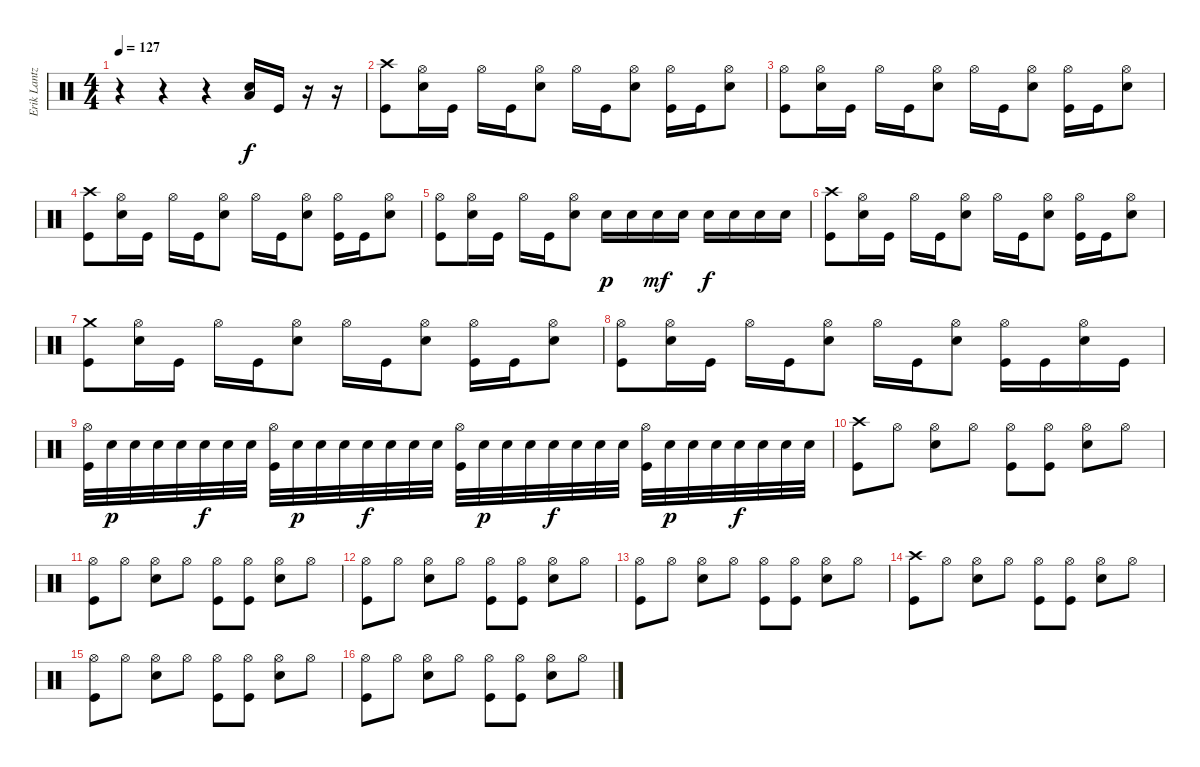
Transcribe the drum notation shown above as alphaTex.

\track ("Erik Lantz" "Erik Lantz") {instrument percussion}
\staff {score}
\articulation defaults
\ts (4 4)
\tempo 127
\clef neutral
\ks c
r.4{dy f} r.4 r.4 ("Low Floor Tom (hit)" "Electric Snare (hit)").16 "Kick (hit)".16 r.16 r.16 |
("Crash high (hit)" "Kick (hit)").8 ("Hi-Hat (open)" "Electric Snare (hit)").16 "Kick (hit)".16 "Hi-Hat (open)".16 "Kick (hit)".16 ("Hi-Hat (open)" "Electric Snare (hit)").8 "Hi-Hat (open)".16 "Kick (hit)".16 ("Hi-Hat (open)" "Electric Snare (hit)").8 ("Hi-Hat (open)" "Kick (hit)").16 "Kick (hit)".16 ("Hi-Hat (open)" "Electric Snare (hit)").8 |
("Hi-Hat (open)" "Kick (hit)").8 ("Hi-Hat (open)" "Electric Snare (hit)").16 "Kick (hit)".16 "Hi-Hat (open)".16 "Kick (hit)".16 ("Hi-Hat (open)" "Electric Snare (hit)").8 "Hi-Hat (open)".16 "Kick (hit)".16 ("Hi-Hat (open)" "Electric Snare (hit)").8 ("Hi-Hat (open)" "Kick (hit)").16 "Kick (hit)".16 ("Hi-Hat (open)" "Electric Snare (hit)").8 |
("Crash high (hit)" "Kick (hit)").8 ("Hi-Hat (open)" "Electric Snare (hit)").16 "Kick (hit)".16 "Hi-Hat (open)".16 "Kick (hit)".16 ("Hi-Hat (open)" "Electric Snare (hit)").8 "Hi-Hat (open)".16 "Kick (hit)".16 ("Hi-Hat (open)" "Electric Snare (hit)").8 ("Hi-Hat (open)" "Kick (hit)").16 "Kick (hit)".16 ("Hi-Hat (open)" "Electric Snare (hit)").8 |
("Hi-Hat (open)" "Kick (hit)").8 ("Hi-Hat (open)" "Electric Snare (hit)").16 "Kick (hit)".16 "Hi-Hat (open)".16 "Kick (hit)".16 ("Hi-Hat (open)" "Electric Snare (hit)").8 "Electric Snare (hit)".16{dy p} "Electric Snare (hit)".16 "Electric Snare (hit)".16{dy mf} "Electric Snare (hit)".16 "Electric Snare (hit)".16{dy f} "Electric Snare (hit)".16 "Electric Snare (hit)".16 "Electric Snare (hit)".16 |
("Crash high (hit)" "Kick (hit)").8 ("Hi-Hat (open)" "Electric Snare (hit)").16 "Kick (hit)".16 "Hi-Hat (open)".16 "Kick (hit)".16 ("Hi-Hat (open)" "Electric Snare (hit)").8 "Hi-Hat (open)".16 "Kick (hit)".16 ("Hi-Hat (open)" "Electric Snare (hit)").8 ("Hi-Hat (open)" "Kick (hit)").16 "Kick (hit)".16 ("Hi-Hat (open)" "Electric Snare (hit)").8 |
("Crash medium (hit)" "Kick (hit)").8 ("Hi-Hat (open)" "Electric Snare (hit)").16 "Kick (hit)".16 "Hi-Hat (open)".16 "Kick (hit)".16 ("Hi-Hat (open)" "Electric Snare (hit)").8 "Hi-Hat (open)".16 "Kick (hit)".16 ("Hi-Hat (open)" "Electric Snare (hit)").8 ("Hi-Hat (open)" "Kick (hit)").16 "Kick (hit)".16 ("Hi-Hat (open)" "Electric Snare (hit)").8 |
("Hi-Hat (open)" "Kick (hit)").8 ("Hi-Hat (open)" "Electric Snare (hit)").16 "Kick (hit)".16 "Hi-Hat (open)".16 "Kick (hit)".16 ("Hi-Hat (open)" "Electric Snare (hit)").8 "Hi-Hat (open)".16 "Kick (hit)".16 ("Hi-Hat (open)" "Electric Snare (hit)").8 ("Hi-Hat (open)" "Kick (hit)").16 "Kick (hit)".16 ("Hi-Hat (open)" "Electric Snare (hit)").16 "Kick (hit)".16 |
("Hi-Hat (open)" "Kick (hit)").32 "Electric Snare (hit)".32{dy p} "Electric Snare (hit)".32 "Electric Snare (hit)".32 "Electric Snare (hit)".32 "Electric Snare (hit)".32{dy f} "Electric Snare (hit)".32 "Electric Snare (hit)".32 ("Hi-Hat (open)" "Kick (hit)").32 "Electric Snare (hit)".32{dy p} "Electric Snare (hit)".32 "Electric Snare (hit)".32 "Electric Snare (hit)".32{dy f} "Electric Snare (hit)".32 "Electric Snare (hit)".32 "Electric Snare (hit)".32 ("Hi-Hat (open)" "Kick (hit)").32 "Electric Snare (hit)".32{dy p} "Electric Snare (hit)".32 "Electric Snare (hit)".32 "Electric Snare (hit)".32{dy f} "Electric Snare (hit)".32 "Electric Snare (hit)".32 "Electric Snare (hit)".32 ("Hi-Hat (open)" "Kick (hit)").32 "Electric Snare (hit)".32{dy p} "Electric Snare (hit)".32 "Electric Snare (hit)".32 "Electric Snare (hit)".32{dy f} "Electric Snare (hit)".32 "Electric Snare (hit)".32 "Electric Snare (hit)".32 |
("Crash high (hit)" "Kick (hit)").8 "Hi-Hat (open)".8 ("Hi-Hat (open)" "Electric Snare (hit)").8 "Hi-Hat (open)".8 ("Hi-Hat (open)" "Kick (hit)").8 ("Hi-Hat (open)" "Kick (hit)").8 ("Hi-Hat (open)" "Electric Snare (hit)").8 "Hi-Hat (open)".8 |
("Hi-Hat (open)" "Kick (hit)").8 "Hi-Hat (open)".8 ("Hi-Hat (open)" "Electric Snare (hit)").8 "Hi-Hat (open)".8 ("Hi-Hat (open)" "Kick (hit)").8 ("Hi-Hat (open)" "Kick (hit)").8 ("Hi-Hat (open)" "Electric Snare (hit)").8 "Hi-Hat (open)".8 |
("Hi-Hat (open)" "Kick (hit)").8 "Hi-Hat (open)".8 ("Hi-Hat (open)" "Electric Snare (hit)").8 "Hi-Hat (open)".8 ("Hi-Hat (open)" "Kick (hit)").8 ("Hi-Hat (open)" "Kick (hit)").8 ("Hi-Hat (open)" "Electric Snare (hit)").8 "Hi-Hat (open)".8 |
("Hi-Hat (open)" "Kick (hit)").8 "Hi-Hat (open)".8 ("Hi-Hat (open)" "Electric Snare (hit)").8 "Hi-Hat (open)".8 ("Hi-Hat (open)" "Kick (hit)").8 ("Hi-Hat (open)" "Kick (hit)").8 ("Hi-Hat (open)" "Electric Snare (hit)").8 "Hi-Hat (open)".8 |
("Crash high (hit)" "Kick (hit)").8 "Hi-Hat (open)".8 ("Hi-Hat (open)" "Electric Snare (hit)").8 "Hi-Hat (open)".8 ("Hi-Hat (open)" "Kick (hit)").8 ("Hi-Hat (open)" "Kick (hit)").8 ("Hi-Hat (open)" "Electric Snare (hit)").8 "Hi-Hat (open)".8 |
("Hi-Hat (open)" "Kick (hit)").8 "Hi-Hat (open)".8 ("Hi-Hat (open)" "Electric Snare (hit)").8 "Hi-Hat (open)".8 ("Hi-Hat (open)" "Kick (hit)").8 ("Hi-Hat (open)" "Kick (hit)").8 ("Hi-Hat (open)" "Electric Snare (hit)").8 "Hi-Hat (open)".8 |
("Hi-Hat (open)" "Kick (hit)").8 "Hi-Hat (open)".8 ("Hi-Hat (open)" "Electric Snare (hit)").8 "Hi-Hat (open)".8 ("Hi-Hat (open)" "Kick (hit)").8 ("Hi-Hat (open)" "Kick (hit)").8 ("Hi-Hat (open)" "Electric Snare (hit)").8 "Hi-Hat (open)".8
